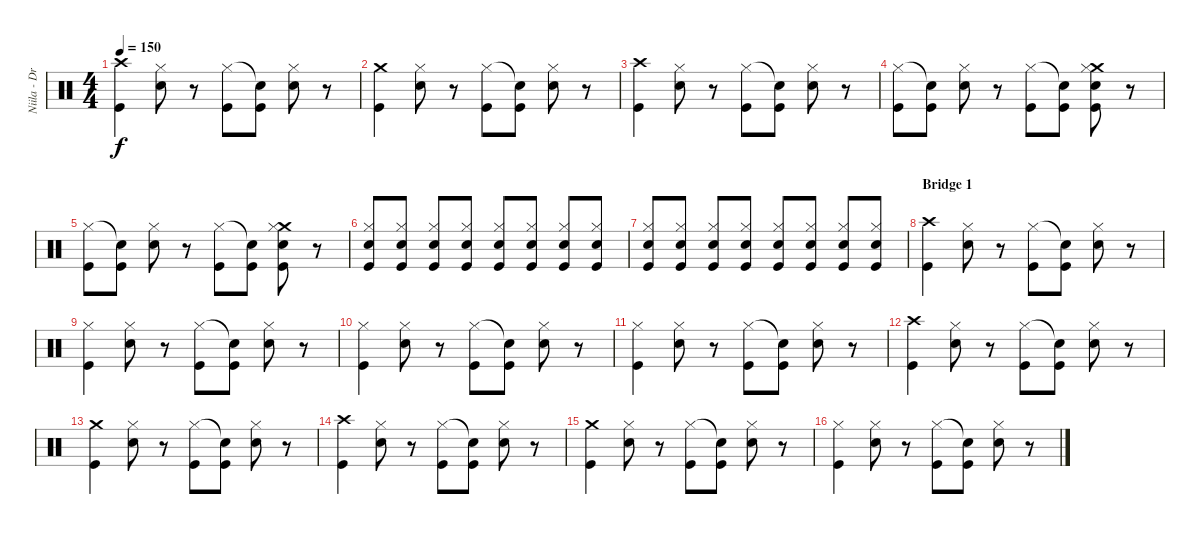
\track ("Niila - Drums" "Niila - Dr") {instrument percussion}
\staff {score}
\articulation defaults
\ts (4 4)
\tempo 150
\clef neutral
\ks c
("Crash high (hit)" "Kick (hit)").4{dy f} ("Hi-Hat (closed)" "Snare (hit) 2").8 r.8 ("Hi-Hat (closed)" "Kick (hit)").8 ("Snare (hit)"{t} "Kick (hit)").8 ("Hi-Hat (closed)" "Snare (hit) 2").8 r.8 |
("Crash medium (hit)" "Kick (hit)").4 ("Hi-Hat (closed)" "Snare (hit) 2").8 r.8 ("Hi-Hat (closed)" "Kick (hit)").8 ("Snare (hit)"{t} "Kick (hit)").8 ("Hi-Hat (closed)" "Snare (hit) 2").8 r.8 |
("Crash high (hit)" "Kick (hit)").4 ("Hi-Hat (closed)" "Snare (hit) 2").8 r.8 ("Hi-Hat (closed)" "Kick (hit)").8 ("Snare (hit)"{t} "Kick (hit)").8 ("Hi-Hat (closed)" "Snare (hit) 2").8 r.8 |
("Hi-Hat (closed)" "Kick (hit)").8 ("Snare (hit)"{t} "Kick (hit)").8 ("Hi-Hat (closed)" "Snare (hit) 2").8 r.8 ("Hi-Hat (closed)" "Kick (hit)").8 ("Snare (hit)"{t} "Kick (hit)").8 ("Crash medium (hit)" "Hi-Hat (closed)" "Snare (hit) 2" "Kick (hit)").8 r.8 |
("Hi-Hat (closed)" "Kick (hit)").8 ("Snare (hit)"{t} "Kick (hit)").8 ("Hi-Hat (closed)" "Snare (hit) 2").8 r.8 ("Hi-Hat (closed)" "Kick (hit)").8 ("Snare (hit)"{t} "Kick (hit)").8 ("Crash medium (hit)" "Hi-Hat (closed)" "Snare (hit) 2" "Kick (hit)").8 r.8 |
("Hi-Hat (closed)" "Snare (hit) 2" "Kick (hit)").8 ("Hi-Hat (closed)" "Snare (hit) 2" "Kick (hit)").8 ("Hi-Hat (closed)" "Snare (hit) 2" "Kick (hit)").8 ("Hi-Hat (closed)" "Snare (hit) 2" "Kick (hit)").8 ("Hi-Hat (closed)" "Snare (hit) 2" "Kick (hit)").8 ("Hi-Hat (closed)" "Snare (hit) 2" "Kick (hit)").8 ("Hi-Hat (closed)" "Snare (hit) 2" "Kick (hit)").8 ("Hi-Hat (closed)" "Snare (hit) 2" "Kick (hit)").8 |
("Hi-Hat (closed)" "Snare (hit) 2" "Kick (hit)").8 ("Hi-Hat (closed)" "Snare (hit) 2" "Kick (hit)").8 ("Hi-Hat (closed)" "Snare (hit) 2" "Kick (hit)").8 ("Hi-Hat (closed)" "Snare (hit) 2" "Kick (hit)").8 ("Hi-Hat (closed)" "Snare (hit) 2" "Kick (hit)").8 ("Hi-Hat (closed)" "Snare (hit) 2" "Kick (hit)").8 ("Hi-Hat (closed)" "Snare (hit) 2" "Kick (hit)").8 ("Hi-Hat (closed)" "Snare (hit) 2" "Kick (hit)").8 |
\section ("" "Bridge 1")
("Crash high (hit)" "Kick (hit)").4 ("Hi-Hat (closed)" "Snare (hit) 2").8 r.8 ("Hi-Hat (closed)" "Kick (hit)").8 ("Snare (hit)"{t} "Kick (hit)").8 ("Hi-Hat (closed)" "Snare (hit) 2").8 r.8 |
("Hi-Hat (closed)" "Kick (hit)").4 ("Hi-Hat (closed)" "Snare (hit) 2").8 r.8 ("Hi-Hat (closed)" "Kick (hit)").8 ("Snare (hit)"{t} "Kick (hit)").8 ("Hi-Hat (closed)" "Snare (hit) 2").8 r.8 |
("Hi-Hat (closed)" "Kick (hit)").4 ("Hi-Hat (closed)" "Snare (hit) 2").8 r.8 ("Hi-Hat (closed)" "Kick (hit)").8 ("Snare (hit)"{t} "Kick (hit)").8 ("Hi-Hat (closed)" "Snare (hit) 2").8 r.8 |
("Hi-Hat (closed)" "Kick (hit)").4 ("Hi-Hat (closed)" "Snare (hit) 2").8 r.8 ("Hi-Hat (closed)" "Kick (hit)").8 ("Snare (hit)"{t} "Kick (hit)").8 ("Hi-Hat (closed)" "Snare (hit) 2").8 r.8 |
("Crash high (hit)" "Kick (hit)").4 ("Hi-Hat (closed)" "Snare (hit) 2").8 r.8 ("Hi-Hat (closed)" "Kick (hit)").8 ("Snare (hit)"{t} "Kick (hit)").8 ("Hi-Hat (closed)" "Snare (hit) 2").8 r.8 |
("Crash medium (hit)" "Kick (hit)").4 ("Hi-Hat (closed)" "Snare (hit) 2").8 r.8 ("Hi-Hat (closed)" "Kick (hit)").8 ("Snare (hit)"{t} "Kick (hit)").8 ("Hi-Hat (closed)" "Snare (hit) 2").8 r.8 |
("Crash high (hit)" "Kick (hit)").4 ("Hi-Hat (closed)" "Snare (hit) 2").8 r.8 ("Hi-Hat (closed)" "Kick (hit)").8 ("Snare (hit)"{t} "Kick (hit)").8 ("Hi-Hat (closed)" "Snare (hit) 2").8 r.8 |
("Crash medium (hit)" "Kick (hit)").4 ("Hi-Hat (closed)" "Snare (hit) 2").8 r.8 ("Hi-Hat (closed)" "Kick (hit)").8 ("Snare (hit)"{t} "Kick (hit)").8 ("Hi-Hat (closed)" "Snare (hit) 2").8 r.8 |
("Hi-Hat (closed)" "Kick (hit)").4 ("Hi-Hat (closed)" "Snare (hit) 2").8 r.8 ("Hi-Hat (closed)" "Kick (hit)").8 ("Snare (hit)"{t} "Kick (hit)").8 ("Hi-Hat (closed)" "Snare (hit) 2").8 r.8
